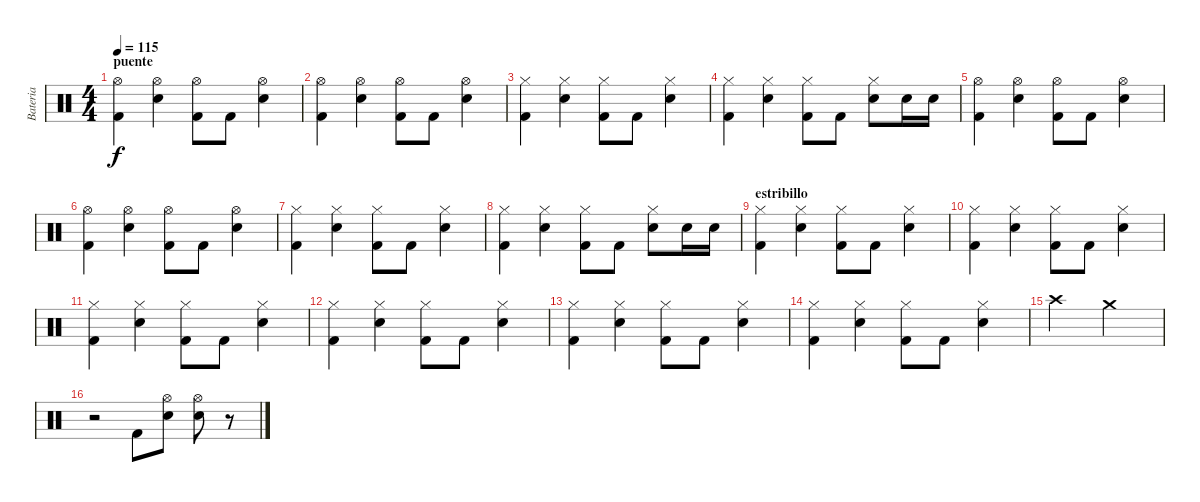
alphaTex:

\track ("Bateria" "Bateria") {instrument percussion}
\staff {score}
\articulation defaults
\ts (4 4)
\section ("" "puente")
\tempo 115
\clef neutral
\ks c
("Hi-Hat (open)" "Kick (hit) 2").4{dy f} ("Hi-Hat (open)" "Electric Snare (hit)").4 ("Hi-Hat (open)" "Kick (hit) 2").8 "Kick (hit) 2".8 ("Hi-Hat (open)" "Electric Snare (hit)").4 |
("Hi-Hat (open)" "Kick (hit) 2").4 ("Hi-Hat (open)" "Electric Snare (hit)").4 ("Hi-Hat (open)" "Kick (hit) 2").8 "Kick (hit) 2".8 ("Hi-Hat (open)" "Electric Snare (hit)").4 |
("Hi-Hat (closed)" "Kick (hit) 2").4 ("Hi-Hat (closed)" "Electric Snare (hit)").4 ("Hi-Hat (closed)" "Kick (hit) 2").8 "Kick (hit) 2".8 ("Hi-Hat (closed)" "Electric Snare (hit)").4 |
("Hi-Hat (closed)" "Kick (hit) 2").4 ("Hi-Hat (closed)" "Electric Snare (hit)").4 ("Hi-Hat (closed)" "Kick (hit) 2").8 "Kick (hit) 2".8 ("Hi-Hat (closed)" "Electric Snare (hit)").8 "Electric Snare (hit)".16 "Electric Snare (hit)".16 |
("Hi-Hat (open)" "Kick (hit) 2").4 ("Hi-Hat (open)" "Electric Snare (hit)").4 ("Hi-Hat (open)" "Kick (hit) 2").8 "Kick (hit) 2".8 ("Hi-Hat (open)" "Electric Snare (hit)").4 |
("Hi-Hat (open)" "Kick (hit) 2").4 ("Hi-Hat (open)" "Electric Snare (hit)").4 ("Hi-Hat (open)" "Kick (hit) 2").8 "Kick (hit) 2".8 ("Hi-Hat (open)" "Electric Snare (hit)").4 |
("Hi-Hat (closed)" "Kick (hit) 2").4 ("Hi-Hat (closed)" "Electric Snare (hit)").4 ("Hi-Hat (closed)" "Kick (hit) 2").8 "Kick (hit) 2".8 ("Hi-Hat (closed)" "Electric Snare (hit)").4 |
("Hi-Hat (closed)" "Kick (hit) 2").4 ("Hi-Hat (closed)" "Electric Snare (hit)").4 ("Hi-Hat (closed)" "Kick (hit) 2").8 "Kick (hit) 2".8 ("Hi-Hat (closed)" "Electric Snare (hit)").8 "Electric Snare (hit)".16 "Electric Snare (hit)".16 |
\section ("" "estribillo")
("Hi-Hat (closed)" "Kick (hit) 2").4 ("Hi-Hat (closed)" "Electric Snare (hit)").4 ("Hi-Hat (closed)" "Kick (hit) 2").8 "Kick (hit) 2".8 ("Hi-Hat (closed)" "Electric Snare (hit)").4 |
("Hi-Hat (closed)" "Kick (hit) 2").4 ("Hi-Hat (closed)" "Electric Snare (hit)").4 ("Hi-Hat (closed)" "Kick (hit) 2").8 "Kick (hit) 2".8 ("Hi-Hat (closed)" "Electric Snare (hit)").4 |
("Hi-Hat (closed)" "Kick (hit) 2").4 ("Hi-Hat (closed)" "Electric Snare (hit)").4 ("Hi-Hat (closed)" "Kick (hit) 2").8 "Kick (hit) 2".8 ("Hi-Hat (closed)" "Electric Snare (hit)").4 |
("Hi-Hat (closed)" "Kick (hit) 2").4 ("Hi-Hat (closed)" "Electric Snare (hit)").4 ("Hi-Hat (closed)" "Kick (hit) 2").8 "Kick (hit) 2".8 ("Hi-Hat (closed)" "Electric Snare (hit)").4 |
("Hi-Hat (closed)" "Kick (hit) 2").4 ("Hi-Hat (closed)" "Electric Snare (hit)").4 ("Hi-Hat (closed)" "Kick (hit) 2").8 "Kick (hit) 2".8 ("Hi-Hat (closed)" "Electric Snare (hit)").4 |
("Hi-Hat (closed)" "Kick (hit) 2").4 ("Hi-Hat (closed)" "Electric Snare (hit)").4 ("Hi-Hat (closed)" "Kick (hit) 2").8 "Kick (hit) 2".8 ("Hi-Hat (closed)" "Electric Snare (hit)").4 |
"Crash high (hit)".2 "Crash medium (hit)".2 |
r.2 "Kick (hit) 2".8 ("Hi-Hat (open)" "Electric Snare (hit)").8 ("Hi-Hat (open)" "Electric Snare (hit)").8 r.8
